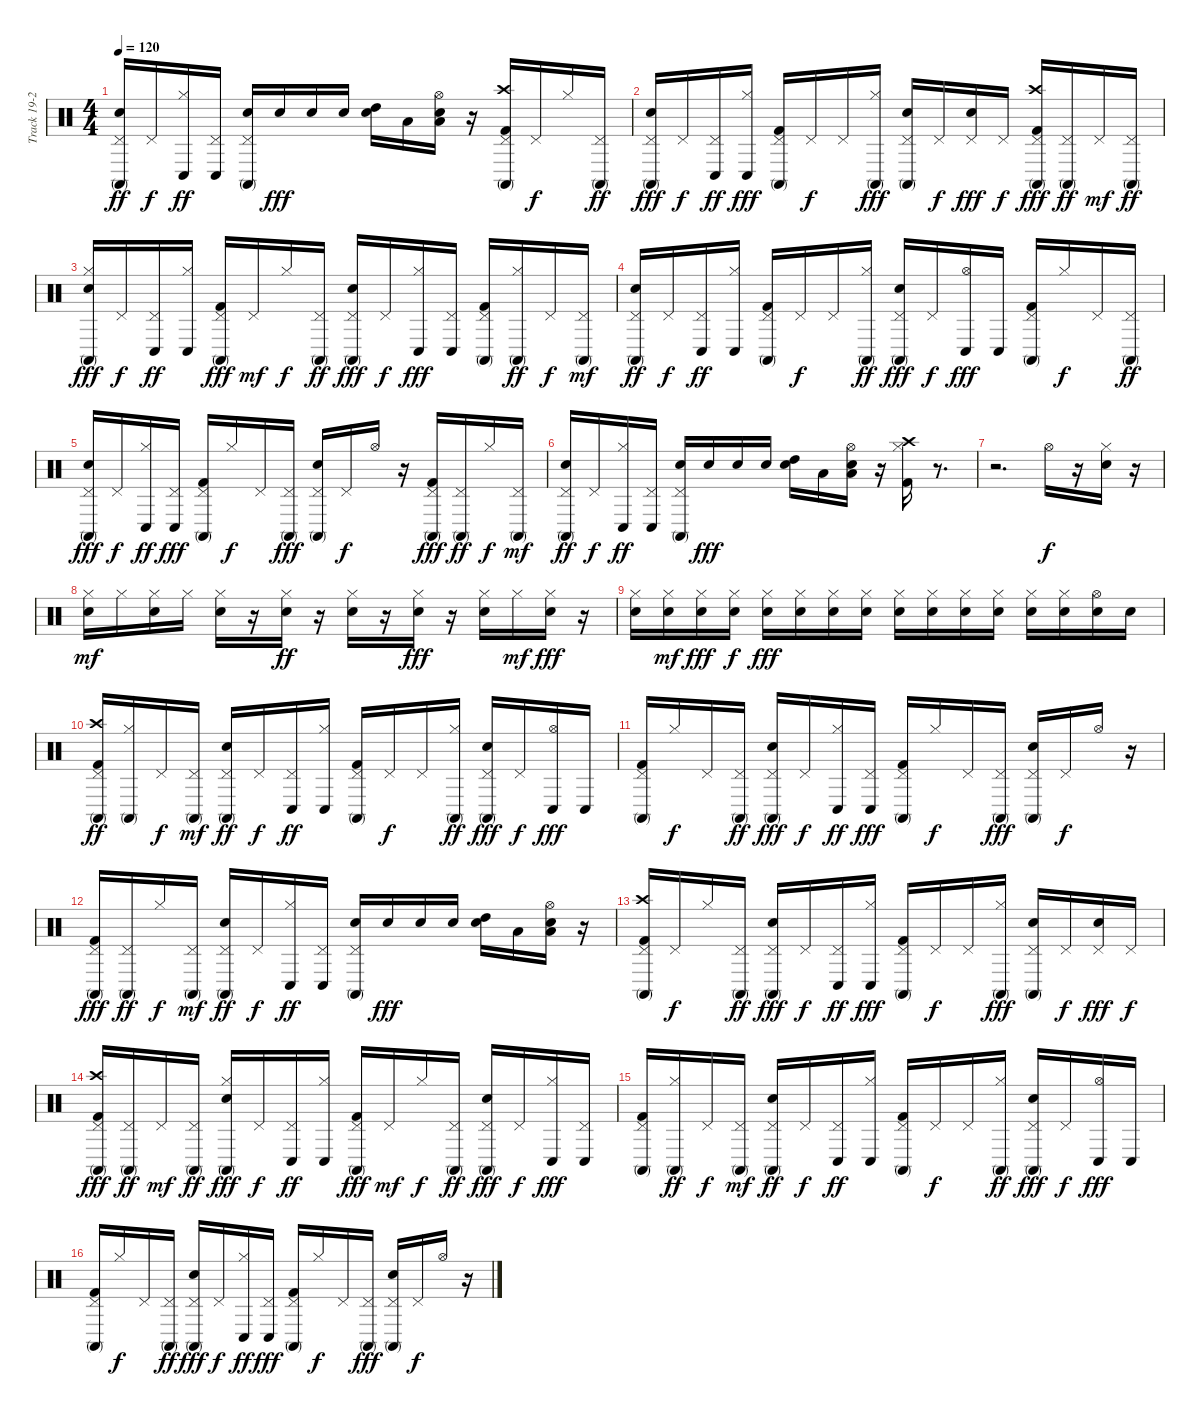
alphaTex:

\track ("Track 19-20-21" "Track 19-2") {instrument percussion}
\staff {score}
\articulation defaults
\ts (4 4)
\tempo 120
\clef neutral
\ks c
("Conga high (mute)" "Snare (hit) 2" "Pedal Hi-Hat (hit)").16{dy ff} "Pedal Hi-Hat (hit)".16{dy f} ("Hi-Hat (closed)" "Conga low (hit)").16{dy ff} ("Pedal Hi-Hat (hit)" "Conga low (hit)").16 ("Conga high (mute)" "Snare (hit) 2" "Pedal Hi-Hat (hit)").16 "Snare (hit) 2".16{dy fff} "Snare (hit) 2".16 "Snare (hit) 2".16 ("High Tom (hit)" "Snare (hit) 2").16 "Low Tom (hit)".16 ("Hi-Hat (open)" "Snare (hit) 2" "Low Floor Tom (hit)").16 r.16 ("Pedal Hi-Hat (hit)" "Crash high (hit)" "Conga high (mute)" "Kick (hit) 2").16 "Pedal Hi-Hat (hit)".16{dy f} "Hi-Hat (closed)".16 ("Pedal Hi-Hat (hit)" "Conga high (mute)").16{dy ff} |
("Pedal Hi-Hat (hit)" "Conga high (mute)" "Snare (hit) 2").16{dy fff} "Pedal Hi-Hat (hit)".16{dy f} ("Pedal Hi-Hat (hit)" "Conga low (hit)").16{dy ff} ("Hi-Hat (closed)" "Conga low (hit)").16{dy fff} ("Pedal Hi-Hat (hit)" "Conga high (mute)" "Kick (hit) 2").16 "Pedal Hi-Hat (hit)".16{dy f} "Pedal Hi-Hat (hit)".16 ("Hi-Hat (closed)" "Conga high (mute)").16{dy fff} ("Pedal Hi-Hat (hit)" "Conga high (mute)" "Snare (hit) 2").16 "Pedal Hi-Hat (hit)".16{dy f} ("Pedal Hi-Hat (hit)" "Snare (hit) 2").16{dy fff} "Pedal Hi-Hat (hit)".16{dy f} ("Pedal Hi-Hat (hit)" "Crash high (hit)" "Conga high (mute)" "Kick (hit) 2").16{dy fff} ("Pedal Hi-Hat (hit)" "Conga high (mute)").16{dy ff} "Pedal Hi-Hat (hit)".16{dy mf} ("Pedal Hi-Hat (hit)" "Conga high (mute)").16{dy ff} |
("Hi-Hat (closed)" "Conga high (mute)" "Snare (hit) 2").16{dy fff} "Pedal Hi-Hat (hit)".16{dy f} ("Pedal Hi-Hat (hit)" "Conga low (hit)").16{dy ff} ("Hi-Hat (closed)" "Conga low (hit)").16 ("Pedal Hi-Hat (hit)" "Conga high (mute)" "Kick (hit) 2").16{dy fff} "Pedal Hi-Hat (hit)".16{dy mf} "Hi-Hat (closed)".16{dy f} ("Pedal Hi-Hat (hit)" "Conga high (mute)").16{dy ff} ("Pedal Hi-Hat (hit)" "Conga high (mute)" "Snare (hit) 2").16{dy fff} "Pedal Hi-Hat (hit)".16{dy f} ("Hi-Hat (closed)" "Conga low (hit)").16{dy fff} ("Pedal Hi-Hat (hit)" "Conga low (hit)").16 ("Conga high (mute)" "Kick (hit) 2" "Pedal Hi-Hat (hit)").16 ("Hi-Hat (closed)" "Conga high (mute)").16{dy ff} "Pedal Hi-Hat (hit)".16{dy f} ("Conga high (mute)" "Pedal Hi-Hat (hit)").16{dy mf} |
("Conga high (mute)" "Snare (hit) 2" "Pedal Hi-Hat (hit)").16{dy ff} "Pedal Hi-Hat (hit)".16{dy f} ("Conga low (hit)" "Pedal Hi-Hat (hit)").16{dy ff} ("Hi-Hat (closed)" "Conga low (hit)").16 ("Conga high (mute)" "Kick (hit) 2" "Pedal Hi-Hat (hit)").16 "Pedal Hi-Hat (hit)".16{dy f} "Pedal Hi-Hat (hit)".16 ("Hi-Hat (closed)" "Conga high (mute)").16{dy ff} ("Conga high (mute)" "Snare (hit) 2" "Pedal Hi-Hat (hit)").16{dy fff} "Pedal Hi-Hat (hit)".16{dy f} ("Hi-Hat (open)" "Conga low (hit)").16{dy fff} "Conga low (hit)".16 ("Pedal Hi-Hat (hit)" "Conga high (mute)" "Kick (hit) 2").16 "Hi-Hat (closed)".16{dy f} "Pedal Hi-Hat (hit)".16 ("Pedal Hi-Hat (hit)" "Conga high (mute)").16{dy ff} |
("Pedal Hi-Hat (hit)" "Conga high (mute)" "Snare (hit) 2").16{dy fff} "Pedal Hi-Hat (hit)".16{dy f} ("Hi-Hat (closed)" "Conga low (hit)").16{dy ff} ("Pedal Hi-Hat (hit)" "Conga low (hit)").16{dy fff} ("Pedal Hi-Hat (hit)" "Conga high (mute)" "Kick (hit) 2").16 "Hi-Hat (closed)".16{dy f} "Pedal Hi-Hat (hit)".16 ("Pedal Hi-Hat (hit)" "Conga high (mute)").16{dy fff} ("Pedal Hi-Hat (hit)" "Conga high (mute)" "Snare (hit) 2").16 "Pedal Hi-Hat (hit)".16{dy f} "Hi-Hat (open)".16 r.16 ("Conga high (mute)" "Kick (hit) 2" "Pedal Hi-Hat (hit)").16{dy fff} ("Pedal Hi-Hat (hit)" "Conga high (mute)").16{dy ff} "Hi-Hat (closed)".16{dy f} ("Conga high (mute)" "Pedal Hi-Hat (hit)").16{dy mf} |
("Conga high (mute)" "Snare (hit) 2" "Pedal Hi-Hat (hit)").16{dy ff} "Pedal Hi-Hat (hit)".16{dy f} ("Hi-Hat (closed)" "Conga low (hit)").16{dy ff} ("Pedal Hi-Hat (hit)" "Conga low (hit)").16 ("Conga high (mute)" "Snare (hit) 2" "Pedal Hi-Hat (hit)").16 "Snare (hit) 2".16{dy fff} "Snare (hit) 2".16 "Snare (hit) 2".16 ("High Tom (hit)" "Snare (hit) 2").16 "Low Tom (hit)".16 ("Hi-Hat (open)" "Snare (hit) 2" "Low Floor Tom (hit)").16 r.16 ("Hi-Hat (closed)" "Crash high (hit)" "Kick (hit) 2").16 r.8{d} |
r.2{d} "Hi-Hat (open)".16{dy f} r.16 ("Hi-Hat (closed)" "Snare (hit) 2").16 r.16 |
("Hi-Hat (closed)" "Snare (hit) 2").16{dy mf} "Hi-Hat (closed)".16 ("Hi-Hat (closed)" "Snare (hit) 2").16 "Hi-Hat (closed)".16 ("Hi-Hat (closed)" "Snare (hit) 2").16 r.16 ("Hi-Hat (closed)" "Snare (hit) 2").16{dy ff} r.16 ("Hi-Hat (closed)" "Snare (hit) 2").16 r.16 ("Hi-Hat (closed)" "Snare (hit) 2").16{dy fff} r.16 ("Hi-Hat (closed)" "Snare (hit) 2").16 "Hi-Hat (closed)".16{dy mf} ("Hi-Hat (closed)" "Snare (hit) 2").16{dy fff} r.16 |
("Hi-Hat (closed)" "Snare (hit) 2").16 ("Hi-Hat (closed)" "Snare (hit) 2").16{dy mf} ("Hi-Hat (closed)" "Snare (hit) 2").16{dy fff} ("Hi-Hat (closed)" "Snare (hit) 2").16{dy f} ("Hi-Hat (closed)" "Snare (hit) 2").16{dy fff} ("Hi-Hat (closed)" "Snare (hit) 2").16 ("Hi-Hat (closed)" "Snare (hit) 2").16 ("Hi-Hat (closed)" "Snare (hit) 2").16 ("Hi-Hat (closed)" "Snare (hit) 2").16 ("Hi-Hat (closed)" "Snare (hit) 2").16 ("Hi-Hat (closed)" "Snare (hit) 2").16 ("Hi-Hat (closed)" "Snare (hit) 2").16 ("Hi-Hat (closed)" "Snare (hit) 2").16 ("Hi-Hat (closed)" "Snare (hit) 2").16 ("Hi-Hat (open)" "Snare (hit) 2").16 "Snare (hit) 2".16 |
("Crash high (hit)" "Conga high (mute)" "Kick (hit) 2" "Pedal Hi-Hat (hit)").16{dy ff} ("Hi-Hat (closed)" "Conga high (mute)").16 "Pedal Hi-Hat (hit)".16{dy f} ("Conga high (mute)" "Pedal Hi-Hat (hit)").16{dy mf} ("Conga high (mute)" "Snare (hit) 2" "Pedal Hi-Hat (hit)").16{dy ff} "Pedal Hi-Hat (hit)".16{dy f} ("Conga low (hit)" "Pedal Hi-Hat (hit)").16{dy ff} ("Hi-Hat (closed)" "Conga low (hit)").16 ("Conga high (mute)" "Kick (hit) 2" "Pedal Hi-Hat (hit)").16 "Pedal Hi-Hat (hit)".16{dy f} "Pedal Hi-Hat (hit)".16 ("Hi-Hat (closed)" "Conga high (mute)").16{dy ff} ("Conga high (mute)" "Snare (hit) 2" "Pedal Hi-Hat (hit)").16{dy fff} "Pedal Hi-Hat (hit)".16{dy f} ("Hi-Hat (open)" "Conga low (hit)").16{dy fff} "Conga low (hit)".16 |
("Pedal Hi-Hat (hit)" "Conga high (mute)" "Kick (hit) 2").16 "Hi-Hat (closed)".16{dy f} "Pedal Hi-Hat (hit)".16 ("Pedal Hi-Hat (hit)" "Conga high (mute)").16{dy ff} ("Pedal Hi-Hat (hit)" "Conga high (mute)" "Snare (hit) 2").16{dy fff} "Pedal Hi-Hat (hit)".16{dy f} ("Hi-Hat (closed)" "Conga low (hit)").16{dy ff} ("Pedal Hi-Hat (hit)" "Conga low (hit)").16{dy fff} ("Pedal Hi-Hat (hit)" "Conga high (mute)" "Kick (hit) 2").16 "Hi-Hat (closed)".16{dy f} "Pedal Hi-Hat (hit)".16 ("Pedal Hi-Hat (hit)" "Conga high (mute)").16{dy fff} ("Pedal Hi-Hat (hit)" "Conga high (mute)" "Snare (hit) 2").16 "Pedal Hi-Hat (hit)".16{dy f} "Hi-Hat (open)".16 r.16 |
("Conga high (mute)" "Kick (hit) 2" "Pedal Hi-Hat (hit)").16{dy fff} ("Pedal Hi-Hat (hit)" "Conga high (mute)").16{dy ff} "Hi-Hat (closed)".16{dy f} ("Conga high (mute)" "Pedal Hi-Hat (hit)").16{dy mf} ("Conga high (mute)" "Snare (hit) 2" "Pedal Hi-Hat (hit)").16{dy ff} "Pedal Hi-Hat (hit)".16{dy f} ("Hi-Hat (closed)" "Conga low (hit)").16{dy ff} ("Pedal Hi-Hat (hit)" "Conga low (hit)").16 ("Conga high (mute)" "Snare (hit) 2" "Pedal Hi-Hat (hit)").16 "Snare (hit) 2".16{dy fff} "Snare (hit) 2".16 "Snare (hit) 2".16 ("High Tom (hit)" "Snare (hit) 2").16 "Low Tom (hit)".16 ("Hi-Hat (open)" "Snare (hit) 2" "Low Floor Tom (hit)").16 r.16 |
("Pedal Hi-Hat (hit)" "Crash high (hit)" "Conga high (mute)" "Kick (hit) 2").16 "Pedal Hi-Hat (hit)".16{dy f} "Hi-Hat (closed)".16 ("Pedal Hi-Hat (hit)" "Conga high (mute)").16{dy ff} ("Pedal Hi-Hat (hit)" "Conga high (mute)" "Snare (hit) 2").16{dy fff} "Pedal Hi-Hat (hit)".16{dy f} ("Pedal Hi-Hat (hit)" "Conga low (hit)").16{dy ff} ("Hi-Hat (closed)" "Conga low (hit)").16{dy fff} ("Pedal Hi-Hat (hit)" "Conga high (mute)" "Kick (hit) 2").16 "Pedal Hi-Hat (hit)".16{dy f} "Pedal Hi-Hat (hit)".16 ("Hi-Hat (closed)" "Conga high (mute)").16{dy fff} ("Pedal Hi-Hat (hit)" "Conga high (mute)" "Snare (hit) 2").16 "Pedal Hi-Hat (hit)".16{dy f} ("Pedal Hi-Hat (hit)" "Snare (hit) 2").16{dy fff} "Pedal Hi-Hat (hit)".16{dy f} |
("Crash high (hit)" "Pedal Hi-Hat (hit)" "Conga high (mute)" "Kick (hit) 2").16{dy fff} ("Pedal Hi-Hat (hit)" "Conga high (mute)").16{dy ff} "Pedal Hi-Hat (hit)".16{dy mf} ("Pedal Hi-Hat (hit)" "Conga high (mute)").16{dy ff} ("Hi-Hat (closed)" "Conga high (mute)" "Snare (hit) 2").16{dy fff} "Pedal Hi-Hat (hit)".16{dy f} ("Pedal Hi-Hat (hit)" "Conga low (hit)").16{dy ff} ("Hi-Hat (closed)" "Conga low (hit)").16 ("Pedal Hi-Hat (hit)" "Conga high (mute)" "Kick (hit) 2").16{dy fff} "Pedal Hi-Hat (hit)".16{dy mf} "Hi-Hat (closed)".16{dy f} ("Pedal Hi-Hat (hit)" "Conga high (mute)").16{dy ff} ("Pedal Hi-Hat (hit)" "Conga high (mute)" "Snare (hit) 2").16{dy fff} "Pedal Hi-Hat (hit)".16{dy f} ("Hi-Hat (closed)" "Conga low (hit)").16{dy fff} ("Pedal Hi-Hat (hit)" "Conga low (hit)").16 |
("Conga high (mute)" "Kick (hit) 2" "Pedal Hi-Hat (hit)").16 ("Hi-Hat (closed)" "Conga high (mute)").16{dy ff} "Pedal Hi-Hat (hit)".16{dy f} ("Conga high (mute)" "Pedal Hi-Hat (hit)").16{dy mf} ("Conga high (mute)" "Snare (hit) 2" "Pedal Hi-Hat (hit)").16{dy ff} "Pedal Hi-Hat (hit)".16{dy f} ("Conga low (hit)" "Pedal Hi-Hat (hit)").16{dy ff} ("Hi-Hat (closed)" "Conga low (hit)").16 ("Conga high (mute)" "Kick (hit) 2" "Pedal Hi-Hat (hit)").16 "Pedal Hi-Hat (hit)".16{dy f} "Pedal Hi-Hat (hit)".16 ("Hi-Hat (closed)" "Conga high (mute)").16{dy ff} ("Conga high (mute)" "Snare (hit) 2" "Pedal Hi-Hat (hit)").16{dy fff} "Pedal Hi-Hat (hit)".16{dy f} ("Hi-Hat (open)" "Conga low (hit)").16{dy fff} "Conga low (hit)".16 |
("Pedal Hi-Hat (hit)" "Conga high (mute)" "Kick (hit) 2").16 "Hi-Hat (closed)".16{dy f} "Pedal Hi-Hat (hit)".16 ("Pedal Hi-Hat (hit)" "Conga high (mute)").16{dy ff} ("Pedal Hi-Hat (hit)" "Conga high (mute)" "Snare (hit) 2").16{dy fff} "Pedal Hi-Hat (hit)".16{dy f} ("Hi-Hat (closed)" "Conga low (hit)").16{dy ff} ("Pedal Hi-Hat (hit)" "Conga low (hit)").16{dy fff} ("Pedal Hi-Hat (hit)" "Conga high (mute)" "Kick (hit) 2").16 "Hi-Hat (closed)".16{dy f} "Pedal Hi-Hat (hit)".16 ("Pedal Hi-Hat (hit)" "Conga high (mute)").16{dy fff} ("Pedal Hi-Hat (hit)" "Conga high (mute)" "Snare (hit) 2").16 "Pedal Hi-Hat (hit)".16{dy f} "Hi-Hat (open)".16 r.16
